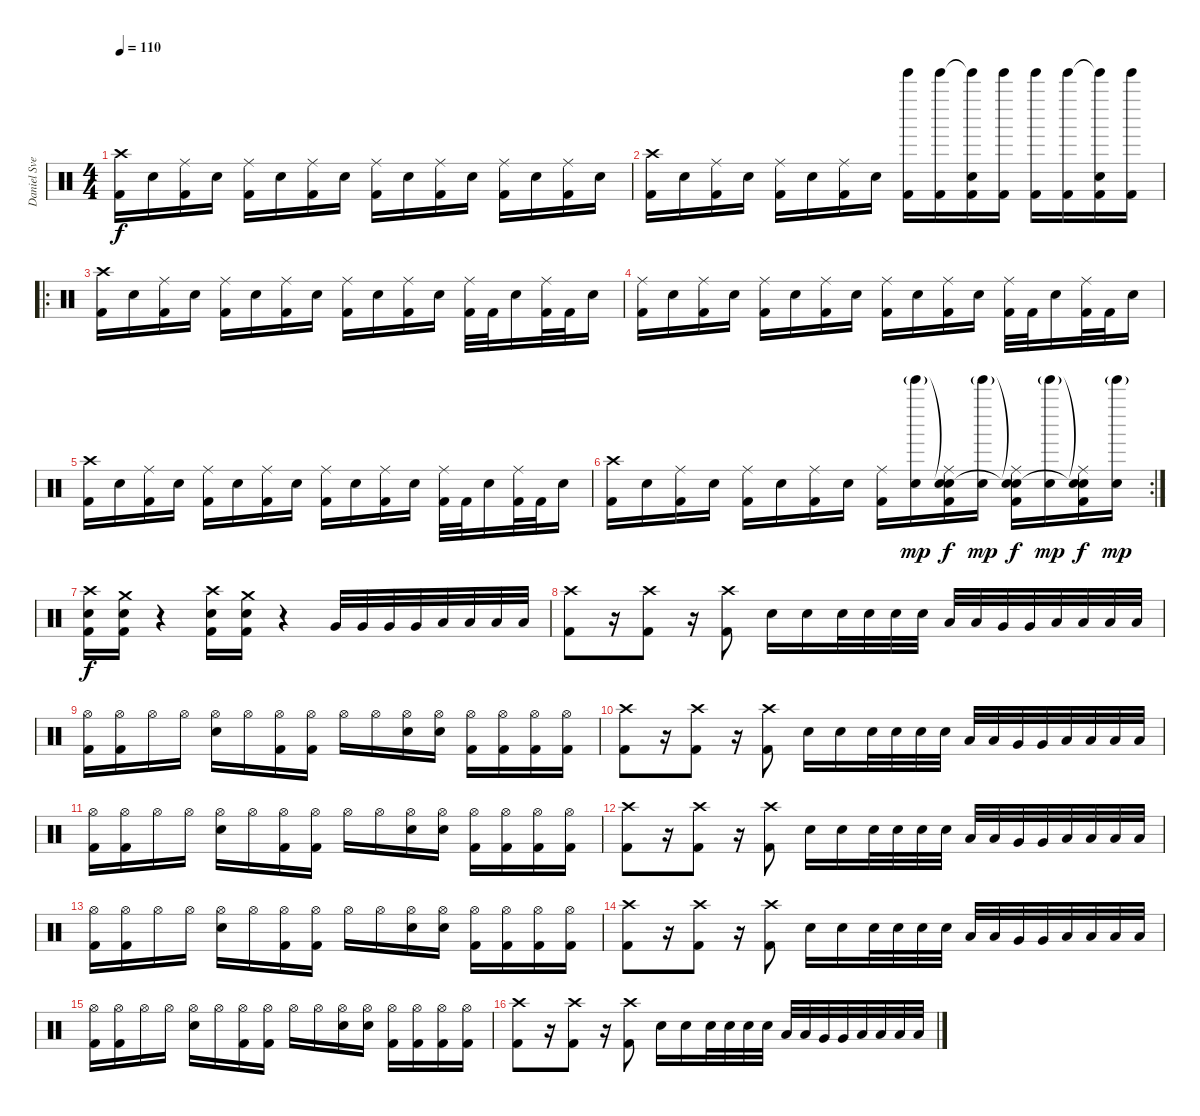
\track ("Daniel Svensson" "Daniel Sve") {instrument percussion}
\staff {score}
\articulation defaults
\ts (4 4)
\tempo 110
\clef neutral
\ks c
("Crash high (hit)" "Kick (hit) 2").16{dy f} "Snare (hit) 2".16 ("Ride (middle)" "Kick (hit) 2").16 "Snare (hit) 2".16 ("Ride (middle)" "Kick (hit) 2").16 "Snare (hit) 2".16 ("Ride (middle)" "Kick (hit) 2").16 "Snare (hit) 2".16 ("Ride (middle)" "Kick (hit) 2").16 "Snare (hit) 2".16 ("Ride (middle)" "Kick (hit) 2").16 "Snare (hit) 2".16 ("Ride (middle)" "Kick (hit) 2").16 "Snare (hit) 2".16 ("Ride (middle)" "Kick (hit) 2").16 "Snare (hit) 2".16 |
("Crash high (hit)" "Kick (hit) 2").16 "Snare (hit) 2".16 ("Ride (middle)" "Kick (hit) 2").16 "Snare (hit) 2".16 ("Ride (middle)" "Kick (hit) 2").16 "Snare (hit) 2".16 ("Ride (middle)" "Kick (hit) 2").16 "Snare (hit) 2".16 ("Tinkle Bell (hit)" "Kick (hit) 2").16 ("Tinkle Bell (hit)" "Kick (hit) 2").16 ("Tinkle Bell (hit)"{t} "Snare (hit) 2" "Kick (hit) 2").16 ("Tinkle Bell (hit)" "Kick (hit) 2").16 ("Tinkle Bell (hit)" "Kick (hit) 2").16 ("Tinkle Bell (hit)" "Kick (hit) 2").16 ("Tinkle Bell (hit)"{t} "Snare (hit) 2" "Kick (hit) 2").16 ("Tinkle Bell (hit)" "Kick (hit) 2").16 |
\ro
("Crash high (hit)" "Kick (hit) 2").16 "Snare (hit) 2".16 ("Ride (middle)" "Kick (hit) 2").16 "Snare (hit) 2".16 ("Ride (middle)" "Kick (hit) 2").16 "Snare (hit) 2".16 ("Ride (middle)" "Kick (hit) 2").16 "Snare (hit) 2".16 ("Ride (middle)" "Kick (hit) 2").16 "Snare (hit) 2".16 ("Ride (middle)" "Kick (hit) 2").16 "Snare (hit) 2".16 ("Ride (middle)" "Kick (hit) 2").32 "Kick (hit) 2".32 "Snare (hit) 2".16 ("Ride (middle)" "Kick (hit) 2").32 "Kick (hit) 2".32 "Snare (hit) 2".16 |
("Ride (middle)" "Kick (hit) 2").16 "Snare (hit) 2".16 ("Ride (middle)" "Kick (hit) 2").16 "Snare (hit) 2".16 ("Ride (middle)" "Kick (hit) 2").16 "Snare (hit) 2".16 ("Ride (middle)" "Kick (hit) 2").16 "Snare (hit) 2".16 ("Ride (middle)" "Kick (hit) 2").16 "Snare (hit) 2".16 ("Ride (middle)" "Kick (hit) 2").16 "Snare (hit) 2".16 ("Ride (middle)" "Kick (hit) 2").32 "Kick (hit) 2".32 "Snare (hit) 2".16 ("Ride (middle)" "Kick (hit) 2").32 "Kick (hit) 2".32 "Snare (hit) 2".16 |
("Crash high (hit)" "Kick (hit) 2").16 "Snare (hit) 2".16 ("Ride (middle)" "Kick (hit) 2").16 "Snare (hit) 2".16 ("Ride (middle)" "Kick (hit) 2").16 "Snare (hit) 2".16 ("Ride (middle)" "Kick (hit) 2").16 "Snare (hit) 2".16 ("Ride (middle)" "Kick (hit) 2").16 "Snare (hit) 2".16 ("Ride (middle)" "Kick (hit) 2").16 "Snare (hit) 2".16 ("Ride (middle)" "Kick (hit) 2").32 "Kick (hit) 2".32 "Snare (hit) 2".16 ("Ride (middle)" "Kick (hit) 2").32 "Kick (hit) 2".32 "Snare (hit) 2".16 |
\rc 2
("Crash high (hit)" "Kick (hit) 2").16 "Snare (hit) 2".16 ("Ride (middle)" "Kick (hit) 2").16 "Snare (hit) 2".16 ("Ride (middle)" "Kick (hit) 2").16 "Snare (hit) 2".16 ("Ride (middle)" "Kick (hit) 2").16 "Snare (hit) 2".16 ("Ride (middle)" "Kick (hit) 2").16 ("Tinkle Bell (hit)"{g} "Snare (hit) 2").16{dy mp} ("Snare (hit)"{t} "Ride (middle)" "Snare (hit)" "Kick (hit) 2").16{dy f} ("Tinkle Bell (hit)"{g} "Snare (hit) 2").16{dy mp} ("Snare (hit)"{t} "Ride (middle)" "Snare (hit)"{t} "Kick (hit) 2").16{dy f} ("Tinkle Bell (hit)"{g} "Snare (hit) 2").16{dy mp} ("Snare (hit)"{t} "Ride (middle)" "Snare (hit)"{t} "Kick (hit) 2").16{dy f} ("Tinkle Bell (hit)"{g} "Snare (hit) 2").16{dy mp} |
("Crash high (hit)" "Snare (hit) 2" "Kick (hit) 2").16{dy f} ("Crash medium (hit)" "Snare (hit) 2" "Kick (hit) 2").16 r.4 ("Crash high (hit)" "Snare (hit) 2" "Kick (hit) 2").16 ("Crash medium (hit)" "Snare (hit) 2" "Kick (hit) 2").16 r.4 "Very Low Tom (hit)".32 "Very Low Tom (hit)".32 "Very Low Tom (hit)".32 "Very Low Tom (hit)".32 "Low Tom (hit)".32 "Low Tom (hit)".32 "Low Floor Tom (hit)".32 "Low Floor Tom (hit)".32 |
("Crash high (hit)" "Kick (hit) 2").8 r.16 ("Crash high (hit)" "Kick (hit) 2").8 r.16 ("Crash high (hit)" "Kick (hit) 2").8 "Snare (hit) 2".16 "Snare (hit) 2".16 "Snare (hit) 2".32 "Snare (hit) 2".32 "Snare (hit) 2".32 "Snare (hit) 2".32 "Low Tom (hit)".32 "Low Tom (hit)".32 "Very Low Tom (hit)".32 "Very Low Tom (hit)".32 "Low Floor Tom (hit)".32 "Low Floor Tom (hit)".32 "Low Floor Tom (hit)".32 "Low Floor Tom (hit)".32 |
("Hi-Hat (open)" "Kick (hit) 2").16 ("Hi-Hat (open)" "Kick (hit) 2").16 "Hi-Hat (open)".16 "Hi-Hat (open)".16 ("Hi-Hat (open)" "Snare (hit) 2").16 "Hi-Hat (open)".16 ("Hi-Hat (open)" "Kick (hit) 2").16 ("Hi-Hat (open)" "Kick (hit) 2").16 "Hi-Hat (open)".16 "Hi-Hat (open)".16 ("Hi-Hat (open)" "Snare (hit) 2").16 ("Hi-Hat (open)" "Snare (hit) 2").16 ("Hi-Hat (open)" "Kick (hit) 2").16 ("Hi-Hat (open)" "Kick (hit) 2").16 ("Hi-Hat (open)" "Kick (hit) 2").16 ("Hi-Hat (open)" "Kick (hit) 2").16 |
("Crash high (hit)" "Kick (hit) 2").8 r.16 ("Crash high (hit)" "Kick (hit) 2").8 r.16 ("Crash high (hit)" "Kick (hit) 2").8 "Snare (hit) 2".16 "Snare (hit) 2".16 "Snare (hit) 2".32 "Snare (hit) 2".32 "Snare (hit) 2".32 "Snare (hit) 2".32 "Low Tom (hit)".32 "Low Tom (hit)".32 "Very Low Tom (hit)".32 "Very Low Tom (hit)".32 "Low Floor Tom (hit)".32 "Low Floor Tom (hit)".32 "Low Floor Tom (hit)".32 "Low Floor Tom (hit)".32 |
("Hi-Hat (open)" "Kick (hit) 2").16 ("Hi-Hat (open)" "Kick (hit) 2").16 "Hi-Hat (open)".16 "Hi-Hat (open)".16 ("Hi-Hat (open)" "Snare (hit) 2").16 "Hi-Hat (open)".16 ("Hi-Hat (open)" "Kick (hit) 2").16 ("Hi-Hat (open)" "Kick (hit) 2").16 "Hi-Hat (open)".16 "Hi-Hat (open)".16 ("Hi-Hat (open)" "Snare (hit) 2").16 ("Hi-Hat (open)" "Snare (hit) 2").16 ("Hi-Hat (open)" "Kick (hit) 2").16 ("Hi-Hat (open)" "Kick (hit) 2").16 ("Hi-Hat (open)" "Kick (hit) 2").16 ("Hi-Hat (open)" "Kick (hit) 2").16 |
("Crash high (hit)" "Kick (hit) 2").8 r.16 ("Crash high (hit)" "Kick (hit) 2").8 r.16 ("Crash high (hit)" "Kick (hit) 2").8 "Snare (hit) 2".16 "Snare (hit) 2".16 "Snare (hit) 2".32 "Snare (hit) 2".32 "Snare (hit) 2".32 "Snare (hit) 2".32 "Low Tom (hit)".32 "Low Tom (hit)".32 "Very Low Tom (hit)".32 "Very Low Tom (hit)".32 "Low Floor Tom (hit)".32 "Low Floor Tom (hit)".32 "Low Floor Tom (hit)".32 "Low Floor Tom (hit)".32 |
("Hi-Hat (open)" "Kick (hit) 2").16 ("Hi-Hat (open)" "Kick (hit) 2").16 "Hi-Hat (open)".16 "Hi-Hat (open)".16 ("Hi-Hat (open)" "Snare (hit) 2").16 "Hi-Hat (open)".16 ("Hi-Hat (open)" "Kick (hit) 2").16 ("Hi-Hat (open)" "Kick (hit) 2").16 "Hi-Hat (open)".16 "Hi-Hat (open)".16 ("Hi-Hat (open)" "Snare (hit) 2").16 ("Hi-Hat (open)" "Snare (hit) 2").16 ("Hi-Hat (open)" "Kick (hit) 2").16 ("Hi-Hat (open)" "Kick (hit) 2").16 ("Hi-Hat (open)" "Kick (hit) 2").16 ("Hi-Hat (open)" "Kick (hit) 2").16 |
("Crash high (hit)" "Kick (hit) 2").8 r.16 ("Crash high (hit)" "Kick (hit) 2").8 r.16 ("Crash high (hit)" "Kick (hit) 2").8 "Snare (hit) 2".16 "Snare (hit) 2".16 "Snare (hit) 2".32 "Snare (hit) 2".32 "Snare (hit) 2".32 "Snare (hit) 2".32 "Low Tom (hit)".32 "Low Tom (hit)".32 "Very Low Tom (hit)".32 "Very Low Tom (hit)".32 "Low Floor Tom (hit)".32 "Low Floor Tom (hit)".32 "Low Floor Tom (hit)".32 "Low Floor Tom (hit)".32 |
("Hi-Hat (open)" "Kick (hit) 2").16 ("Hi-Hat (open)" "Kick (hit) 2").16 "Hi-Hat (open)".16 "Hi-Hat (open)".16 ("Hi-Hat (open)" "Snare (hit) 2").16 "Hi-Hat (open)".16 ("Hi-Hat (open)" "Kick (hit) 2").16 ("Hi-Hat (open)" "Kick (hit) 2").16 "Hi-Hat (open)".16 "Hi-Hat (open)".16 ("Hi-Hat (open)" "Snare (hit) 2").16 ("Hi-Hat (open)" "Snare (hit) 2").16 ("Hi-Hat (open)" "Kick (hit) 2").16 ("Hi-Hat (open)" "Kick (hit) 2").16 ("Hi-Hat (open)" "Kick (hit) 2").16 ("Hi-Hat (open)" "Kick (hit) 2").16 |
("Crash high (hit)" "Kick (hit) 2").8 r.16 ("Crash high (hit)" "Kick (hit) 2").8 r.16 ("Crash high (hit)" "Kick (hit) 2").8 "Snare (hit) 2".16 "Snare (hit) 2".16 "Snare (hit) 2".32 "Snare (hit) 2".32 "Snare (hit) 2".32 "Snare (hit) 2".32 "Low Tom (hit)".32 "Low Tom (hit)".32 "Very Low Tom (hit)".32 "Very Low Tom (hit)".32 "Low Floor Tom (hit)".32 "Low Floor Tom (hit)".32 "Low Floor Tom (hit)".32 "Low Floor Tom (hit)".32
